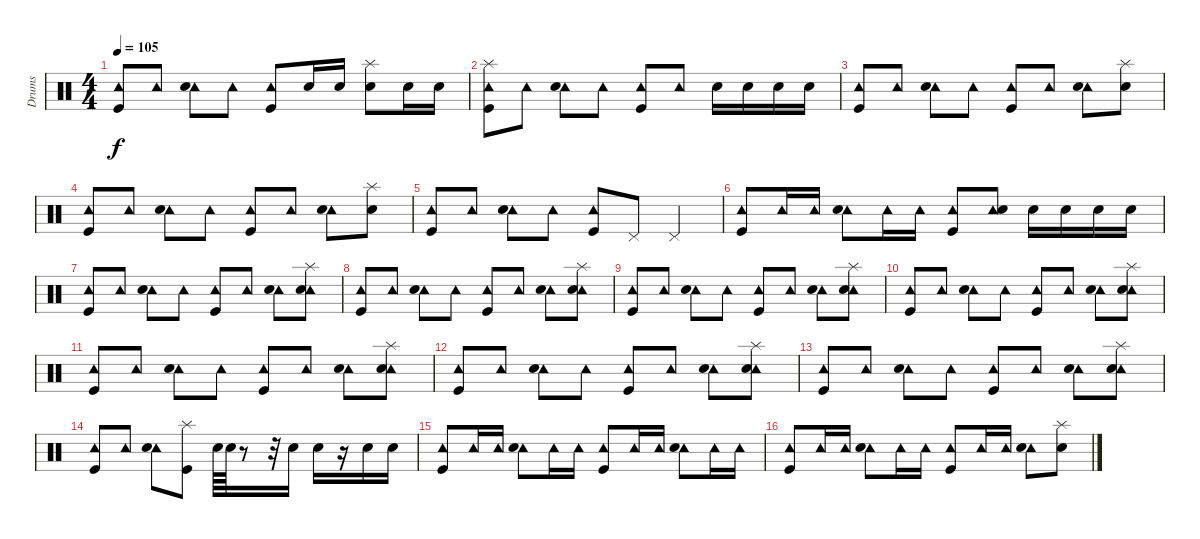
\track ("Drums" "Drums") {instrument percussion}
\staff {score}
\articulation defaults
\ts (4 4)
\tempo 105
\clef neutral
\ks c
("Tambourine (hit)" "Kick (hit)").8{dy f} "Tambourine (hit)".8 ("Tambourine (hit)" "Snare (hit) 2").8 "Tambourine (hit)".8 ("Tambourine (hit)" "Kick (hit)").8 "Snare (hit) 2".16 "Snare (hit) 2".16 ("Splash (hit)" "Snare (hit) 2").8 "Snare (hit) 2".16 "Snare (hit) 2".16 |
("Tambourine (hit)" "Kick (hit)" "Splash (hit)").8 "Tambourine (hit)".8 ("Tambourine (hit)" "Snare (hit) 2").8 "Tambourine (hit)".8 ("Tambourine (hit)" "Kick (hit)").8 "Tambourine (hit)".8 "Snare (hit) 2".16 "Snare (hit) 2".16 "Snare (hit) 2".16 "Snare (hit) 2".16 |
("Tambourine (hit)" "Kick (hit)").8 "Tambourine (hit)".8 ("Tambourine (hit)" "Snare (hit) 2").8 "Tambourine (hit)".8 ("Tambourine (hit)" "Kick (hit)").8 "Tambourine (hit)".8 ("Tambourine (hit)" "Snare (hit) 2").8 ("Splash (hit)" "Snare (hit) 2").8 |
("Tambourine (hit)" "Kick (hit)").8 "Tambourine (hit)".8 ("Tambourine (hit)" "Snare (hit) 2").8 "Tambourine (hit)".8 ("Tambourine (hit)" "Kick (hit)").8 "Tambourine (hit)".8 ("Tambourine (hit)" "Snare (hit) 2").8 ("Splash (hit)" "Snare (hit) 2").8 |
("Tambourine (hit)" "Kick (hit)").8 "Tambourine (hit)".8 ("Tambourine (hit)" "Snare (hit) 2").8 "Tambourine (hit)".8 ("Tambourine (hit)" "Kick (hit)").8 "Pedal Hi-Hat (hit)".8 "Pedal Hi-Hat (hit)".4 |
("Tambourine (hit)" "Kick (hit)").8 "Tambourine (hit)".16 "Tambourine (hit)".16 ("Tambourine (hit)" "Snare (hit) 2").8 "Tambourine (hit)".16 "Tambourine (hit)".16 ("Tambourine (hit)" "Kick (hit)").8 ("Tambourine (hit)" "Snare (hit) 2").8 "Snare (hit) 2".16 "Snare (hit) 2".16 "Snare (hit) 2".16 "Snare (hit) 2".16 |
("Tambourine (hit)" "Kick (hit)").8 "Tambourine (hit)".8 ("Tambourine (hit)" "Snare (hit) 2").8 "Tambourine (hit)".8 ("Tambourine (hit)" "Kick (hit)").8 "Tambourine (hit)".8 ("Tambourine (hit)" "Snare (hit) 2").8 ("Tambourine (hit)" "Snare (hit) 2" "Splash (hit)").8 |
("Tambourine (hit)" "Kick (hit)").8 "Tambourine (hit)".8 ("Tambourine (hit)" "Snare (hit) 2").8 "Tambourine (hit)".8 ("Tambourine (hit)" "Kick (hit)").8 "Tambourine (hit)".8 ("Tambourine (hit)" "Snare (hit) 2").8 ("Tambourine (hit)" "Snare (hit) 2" "Splash (hit)").8 |
("Tambourine (hit)" "Kick (hit)").8 "Tambourine (hit)".8 ("Tambourine (hit)" "Snare (hit) 2").8 "Tambourine (hit)".8 ("Tambourine (hit)" "Kick (hit)").8 "Tambourine (hit)".8 ("Tambourine (hit)" "Snare (hit) 2").8 ("Tambourine (hit)" "Snare (hit) 2" "Splash (hit)").8 |
("Tambourine (hit)" "Kick (hit)").8 "Tambourine (hit)".8 ("Tambourine (hit)" "Snare (hit) 2").8 "Tambourine (hit)".8 ("Tambourine (hit)" "Kick (hit)").8 "Tambourine (hit)".8 ("Tambourine (hit)" "Snare (hit) 2").8 ("Tambourine (hit)" "Snare (hit) 2" "Splash (hit)").8 |
("Tambourine (hit)" "Kick (hit)").8 "Tambourine (hit)".8 ("Tambourine (hit)" "Snare (hit) 2").8 "Tambourine (hit)".8 ("Tambourine (hit)" "Kick (hit)").8 "Tambourine (hit)".8 ("Tambourine (hit)" "Snare (hit) 2").8 ("Tambourine (hit)" "Snare (hit) 2" "Splash (hit)").8 |
("Tambourine (hit)" "Kick (hit)").8 "Tambourine (hit)".8 ("Tambourine (hit)" "Snare (hit) 2").8 "Tambourine (hit)".8 ("Tambourine (hit)" "Kick (hit)").8 "Tambourine (hit)".8 ("Tambourine (hit)" "Snare (hit) 2").8 ("Tambourine (hit)" "Snare (hit) 2" "Splash (hit)").8 |
("Tambourine (hit)" "Kick (hit)").8 "Tambourine (hit)".8 ("Tambourine (hit)" "Snare (hit) 2").8 "Tambourine (hit)".8 ("Tambourine (hit)" "Kick (hit)").8 "Tambourine (hit)".8 ("Tambourine (hit)" "Snare (hit) 2").8 ("Tambourine (hit)" "Snare (hit) 2" "Splash (hit)").8 |
("Tambourine (hit)" "Kick (hit)").8 "Tambourine (hit)".8 ("Tambourine (hit)" "Snare (hit) 2").8 ("Kick (hit)" "Splash (hit)").8 "Snare (hit) 2".64 "Snare (hit) 2".64 r.8 r.32 "Snare (hit) 2".16 "Snare (hit) 2".16 r.16 "Snare (hit) 2".16 "Snare (hit) 2".16 |
("Tambourine (hit)" "Kick (hit)").8 "Tambourine (hit)".16 "Tambourine (hit)".16 ("Tambourine (hit)" "Snare (hit) 2").8 "Tambourine (hit)".16 "Tambourine (hit)".16 ("Tambourine (hit)" "Kick (hit)").8 "Tambourine (hit)".16 "Tambourine (hit)".16 ("Tambourine (hit)" "Snare (hit) 2").8 "Tambourine (hit)".16 "Tambourine (hit)".16 |
("Tambourine (hit)" "Kick (hit)").8 "Tambourine (hit)".16 "Tambourine (hit)".16 ("Tambourine (hit)" "Snare (hit) 2").8 "Tambourine (hit)".16 "Tambourine (hit)".16 ("Tambourine (hit)" "Kick (hit)").8 "Tambourine (hit)".16 "Tambourine (hit)".16 ("Tambourine (hit)" "Snare (hit) 2").8 ("Splash (hit)" "Snare (hit) 2").8
